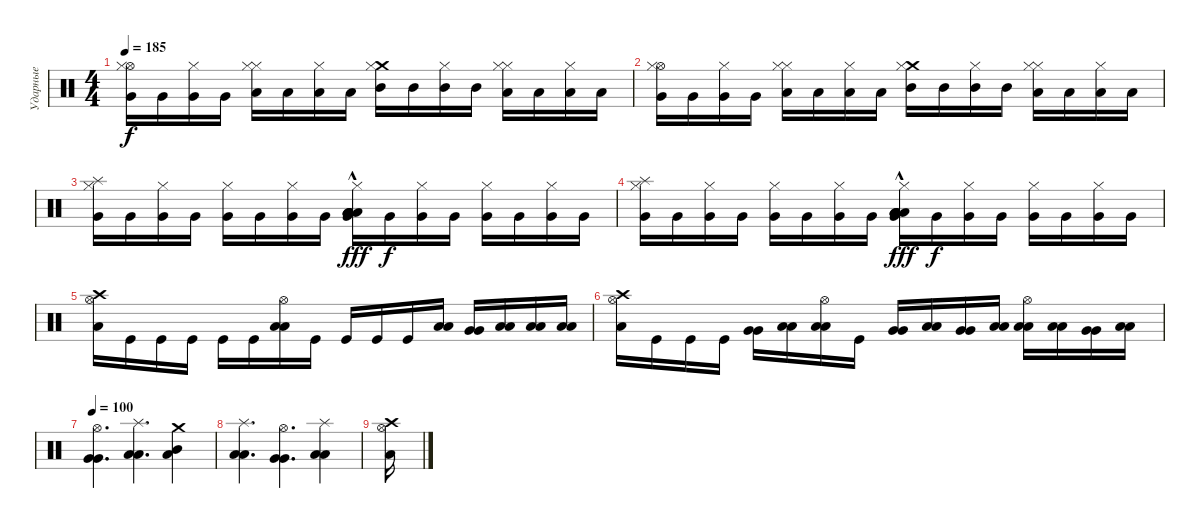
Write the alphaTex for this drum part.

\track ("Ударные" "Ударные") {instrument percussion}
\staff {score}
\articulation defaults
\ts (4 4)
\tempo 185
\clef neutral
\ks c
("Hi-Hat (open)" "Very Low Tom (hit)" "Hi-Hat (closed)").16{dy f} "Very Low Tom (hit)".16 ("Very Low Tom (hit)" "Hi-Hat (closed)").16 "Very Low Tom (hit)".16 ("Hi-Hat (closed)" "Low Tom (hit)" "Hi-Hat (closed)").16 "Low Tom (hit)".16 ("Low Tom (hit)" "Hi-Hat (closed)").16 "Low Tom (hit)".16 ("Crash medium (hit)" "Mid Tom (hit)" "Hi-Hat (closed)").16 "Mid Tom (hit)".16 ("Mid Tom (hit)" "Hi-Hat (closed)").16 "Mid Tom (hit)".16 ("Hi-Hat (closed)" "Low Tom (hit)" "Hi-Hat (closed)").16 "Low Tom (hit)".16 ("Low Tom (hit)" "Hi-Hat (closed)").16 "Low Tom (hit)".16 |
("Hi-Hat (open)" "Very Low Tom (hit)" "Hi-Hat (closed)").16 "Very Low Tom (hit)".16 ("Very Low Tom (hit)" "Hi-Hat (closed)").16 "Very Low Tom (hit)".16 ("Hi-Hat (closed)" "Low Tom (hit)" "Hi-Hat (closed)").16 "Low Tom (hit)".16 ("Low Tom (hit)" "Hi-Hat (closed)").16 "Low Tom (hit)".16 ("Crash medium (hit)" "Mid Tom (hit)" "Hi-Hat (closed)").16 "Mid Tom (hit)".16 ("Mid Tom (hit)" "Hi-Hat (closed)").16 "Mid Tom (hit)".16 ("Hi-Hat (closed)" "Low Tom (hit)" "Hi-Hat (closed)").16 "Low Tom (hit)".16 ("Low Tom (hit)" "Hi-Hat (closed)").16 "Low Tom (hit)".16 |
("Splash (hit)" "Very Low Tom (hit)" "Hi-Hat (closed)").16 "Very Low Tom (hit)".16 ("Very Low Tom (hit)" "Hi-Hat (closed)").16 "Very Low Tom (hit)".16 ("Very Low Tom (hit)" "Hi-Hat (closed)").16 "Very Low Tom (hit)".16 ("Very Low Tom (hit)" "Hi-Hat (closed)").16 "Very Low Tom (hit)".16 ("Low Tom (hit)"{hac} "Low Tom (hit)" "Low Tom (hit)" "Very Low Tom (hit)" "Hi-Hat (closed)" "Low Tom (hit)").16{dy fff} "Very Low Tom (hit)".16{dy f} ("Very Low Tom (hit)" "Hi-Hat (closed)").16 "Very Low Tom (hit)".16 ("Very Low Tom (hit)" "Hi-Hat (closed)").16 "Very Low Tom (hit)".16 ("Very Low Tom (hit)" "Hi-Hat (closed)").16 "Very Low Tom (hit)".16 |
("Splash (hit)" "Very Low Tom (hit)" "Hi-Hat (closed)").16 "Very Low Tom (hit)".16 ("Very Low Tom (hit)" "Hi-Hat (closed)").16 "Very Low Tom (hit)".16 ("Very Low Tom (hit)" "Hi-Hat (closed)").16 "Very Low Tom (hit)".16 ("Very Low Tom (hit)" "Hi-Hat (closed)").16 "Very Low Tom (hit)".16 ("Low Tom (hit)"{hac} "Low Tom (hit)" "Low Tom (hit)" "Very Low Tom (hit)" "Hi-Hat (closed)" "Low Tom (hit)").16{dy fff} "Very Low Tom (hit)".16{dy f} ("Very Low Tom (hit)" "Hi-Hat (closed)").16 "Very Low Tom (hit)".16 ("Very Low Tom (hit)" "Hi-Hat (closed)").16 "Very Low Tom (hit)".16 ("Very Low Tom (hit)" "Hi-Hat (closed)").16 "Very Low Tom (hit)".16 |
("Hi-Hat (open)" "Crash high (hit)" "Low Tom (hit)").16{balance 8} "Kick (hit)".16 "Kick (hit)".16 "Kick (hit)".16 "Kick (hit)".16 "Kick (hit)".16 ("Hi-Hat (open)" "Low Tom (hit)" "Low Tom (hit)").16 "Kick (hit)".16 "Kick (hit)".16 "Kick (hit)".16 "Kick (hit)".16 ("Low Tom (hit)" "Low Tom (hit)").16 ("Very Low Tom (hit)" "Very Low Tom (hit)").16{balance 10} ("Low Floor Tom (hit)" "Low Floor Tom (hit)").16{balance 6} ("Low Floor Tom (hit)" "Low Floor Tom (hit)").16 ("Low Floor Tom (hit)" "Low Floor Tom (hit)").16 |
("Hi-Hat (open)" "Crash high (hit)" "Low Tom (hit)").16{volume 13 balance 8} "Kick (hit)".16 "Kick (hit)".16 "Kick (hit)".16 ("Very Low Tom (hit)" "Very Low Tom (hit)").16{balance 10} ("Low Floor Tom (hit)" "Low Floor Tom (hit)").16{balance 5} ("Hi-Hat (open)" "Low Tom (hit)" "Low Tom (hit)").16{balance 8} "Kick (hit)".16 ("Very Low Tom (hit)" "Very Low Tom (hit)").16{balance 10} ("Low Floor Tom (hit)" "Low Floor Tom (hit)").16 ("Very Low Tom (hit)" "Very Low Tom (hit)").16{balance 10} ("Low Floor Tom (hit)" "Low Floor Tom (hit)").16 ("Hi-Hat (open)" "Low Tom (hit)" "Low Tom (hit)").16{balance 8} ("Low Floor Tom (hit)" "Low Floor Tom (hit)").16{balance 6} ("Very Low Tom (hit)" "Very Low Tom (hit)").16 ("Low Floor Tom (hit)" "Low Floor Tom (hit)").16{balance 5} |
\tempo 100
("Hi-Hat (open)" "Very Low Tom (hit)" "Very Low Tom (hit)").4{d} ("Splash (hit)" "Low Floor Tom (hit)" "Low Floor Tom (hit)").4{d} ("Crash medium (hit)" "Low Floor Tom (hit)" "Mid Tom (hit)").4 |
("Splash (hit)" "Low Tom (hit)" "Low Tom (hit)").4{d} ("Hi-Hat (open)" "Very Low Tom (hit)" "Very Low Tom (hit)").4{d} ("Splash (hit)" "Low Tom (hit)" "Low Tom (hit)").4 |
("Hi-Hat (open)" "Crash high (hit)" "Low Tom (hit)").16{volume 13}
